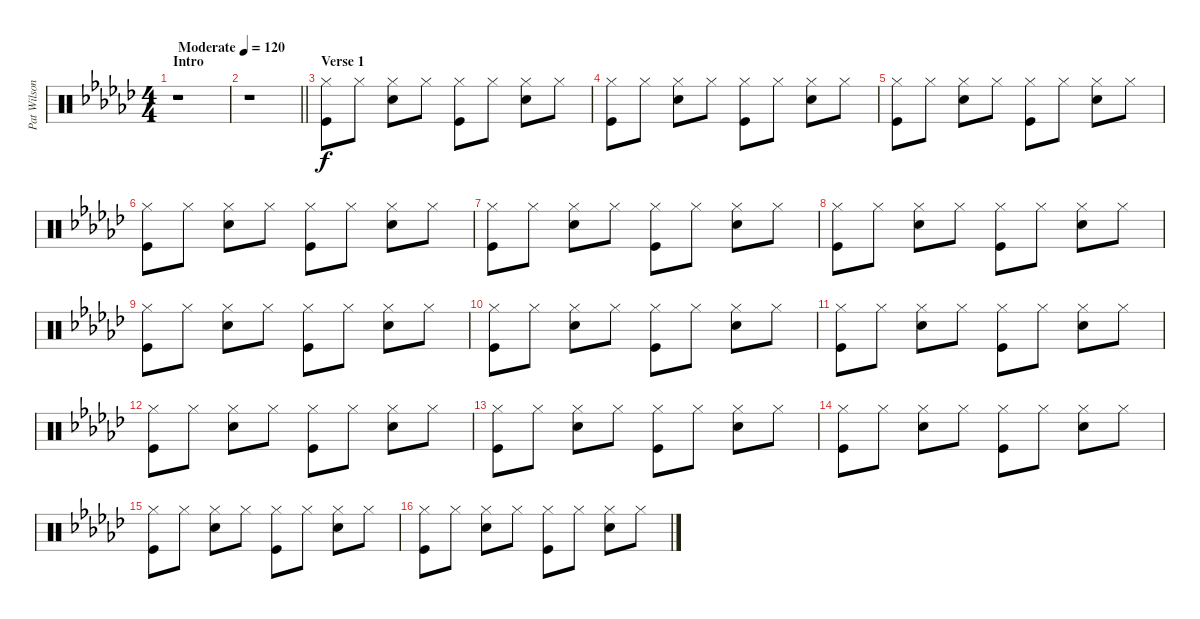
\track ("Pat Wilson" "Pat Wilson") {instrument percussion}
\staff {score}
\articulation defaults
\ts (4 4)
\section ("" "Intro")
\tempo (120 "Moderate")
\clef neutral
\ks gb
r.1{dy f} |
\barLineRight lightlight
r.1 |
\section ("" "Verse 1")
("Hi-Hat (closed)" "Kick (hit)").8 "Hi-Hat (closed)".8 ("Hi-Hat (closed)" "Snare (hit) 2").8 "Hi-Hat (closed)".8 ("Hi-Hat (closed)" "Kick (hit)").8 "Hi-Hat (closed)".8 ("Hi-Hat (closed)" "Snare (hit) 2").8 "Hi-Hat (closed)".8 |
("Hi-Hat (closed)" "Kick (hit)").8 "Hi-Hat (closed)".8 ("Hi-Hat (closed)" "Snare (hit) 2").8 "Hi-Hat (closed)".8 ("Hi-Hat (closed)" "Kick (hit)").8 "Hi-Hat (closed)".8 ("Hi-Hat (closed)" "Snare (hit) 2").8 "Hi-Hat (closed)".8 |
("Hi-Hat (closed)" "Kick (hit)").8 "Hi-Hat (closed)".8 ("Hi-Hat (closed)" "Snare (hit) 2").8 "Hi-Hat (closed)".8 ("Hi-Hat (closed)" "Kick (hit)").8 "Hi-Hat (closed)".8 ("Hi-Hat (closed)" "Snare (hit) 2").8 "Hi-Hat (closed)".8 |
("Hi-Hat (closed)" "Kick (hit)").8 "Hi-Hat (closed)".8 ("Hi-Hat (closed)" "Snare (hit) 2").8 "Hi-Hat (closed)".8 ("Hi-Hat (closed)" "Kick (hit)").8 "Hi-Hat (closed)".8 ("Hi-Hat (closed)" "Snare (hit) 2").8 "Hi-Hat (closed)".8 |
("Hi-Hat (closed)" "Kick (hit)").8 "Hi-Hat (closed)".8 ("Hi-Hat (closed)" "Snare (hit) 2").8 "Hi-Hat (closed)".8 ("Hi-Hat (closed)" "Kick (hit)").8 "Hi-Hat (closed)".8 ("Hi-Hat (closed)" "Snare (hit) 2").8 "Hi-Hat (closed)".8 |
("Hi-Hat (closed)" "Kick (hit)").8 "Hi-Hat (closed)".8 ("Hi-Hat (closed)" "Snare (hit) 2").8 "Hi-Hat (closed)".8 ("Hi-Hat (closed)" "Kick (hit)").8 "Hi-Hat (closed)".8 ("Hi-Hat (closed)" "Snare (hit) 2").8 "Hi-Hat (closed)".8 |
("Hi-Hat (closed)" "Kick (hit)").8 "Hi-Hat (closed)".8 ("Hi-Hat (closed)" "Snare (hit) 2").8 "Hi-Hat (closed)".8 ("Hi-Hat (closed)" "Kick (hit)").8 "Hi-Hat (closed)".8 ("Hi-Hat (closed)" "Snare (hit) 2").8 "Hi-Hat (closed)".8 |
("Hi-Hat (closed)" "Kick (hit)").8 "Hi-Hat (closed)".8 ("Hi-Hat (closed)" "Snare (hit) 2").8 "Hi-Hat (closed)".8 ("Hi-Hat (closed)" "Kick (hit)").8 "Hi-Hat (closed)".8 ("Hi-Hat (closed)" "Snare (hit) 2").8 "Hi-Hat (closed)".8 |
("Hi-Hat (closed)" "Kick (hit)").8 "Hi-Hat (closed)".8 ("Hi-Hat (closed)" "Snare (hit) 2").8 "Hi-Hat (closed)".8 ("Hi-Hat (closed)" "Kick (hit)").8 "Hi-Hat (closed)".8 ("Hi-Hat (closed)" "Snare (hit) 2").8 "Hi-Hat (closed)".8 |
("Hi-Hat (closed)" "Kick (hit)").8 "Hi-Hat (closed)".8 ("Hi-Hat (closed)" "Snare (hit) 2").8 "Hi-Hat (closed)".8 ("Hi-Hat (closed)" "Kick (hit)").8 "Hi-Hat (closed)".8 ("Hi-Hat (closed)" "Snare (hit) 2").8 "Hi-Hat (closed)".8 |
("Hi-Hat (closed)" "Kick (hit)").8 "Hi-Hat (closed)".8 ("Hi-Hat (closed)" "Snare (hit) 2").8 "Hi-Hat (closed)".8 ("Hi-Hat (closed)" "Kick (hit)").8 "Hi-Hat (closed)".8 ("Hi-Hat (closed)" "Snare (hit) 2").8 "Hi-Hat (closed)".8 |
("Hi-Hat (closed)" "Kick (hit)").8 "Hi-Hat (closed)".8 ("Hi-Hat (closed)" "Snare (hit) 2").8 "Hi-Hat (closed)".8 ("Hi-Hat (closed)" "Kick (hit)").8 "Hi-Hat (closed)".8 ("Hi-Hat (closed)" "Snare (hit) 2").8 "Hi-Hat (closed)".8 |
("Hi-Hat (closed)" "Kick (hit)").8 "Hi-Hat (closed)".8 ("Hi-Hat (closed)" "Snare (hit) 2").8 "Hi-Hat (closed)".8 ("Hi-Hat (closed)" "Kick (hit)").8 "Hi-Hat (closed)".8 ("Hi-Hat (closed)" "Snare (hit) 2").8 "Hi-Hat (closed)".8 |
("Hi-Hat (closed)" "Kick (hit)").8 "Hi-Hat (closed)".8 ("Hi-Hat (closed)" "Snare (hit) 2").8 "Hi-Hat (closed)".8 ("Hi-Hat (closed)" "Kick (hit)").8 "Hi-Hat (closed)".8 ("Hi-Hat (closed)" "Snare (hit) 2").8 "Hi-Hat (closed)".8
